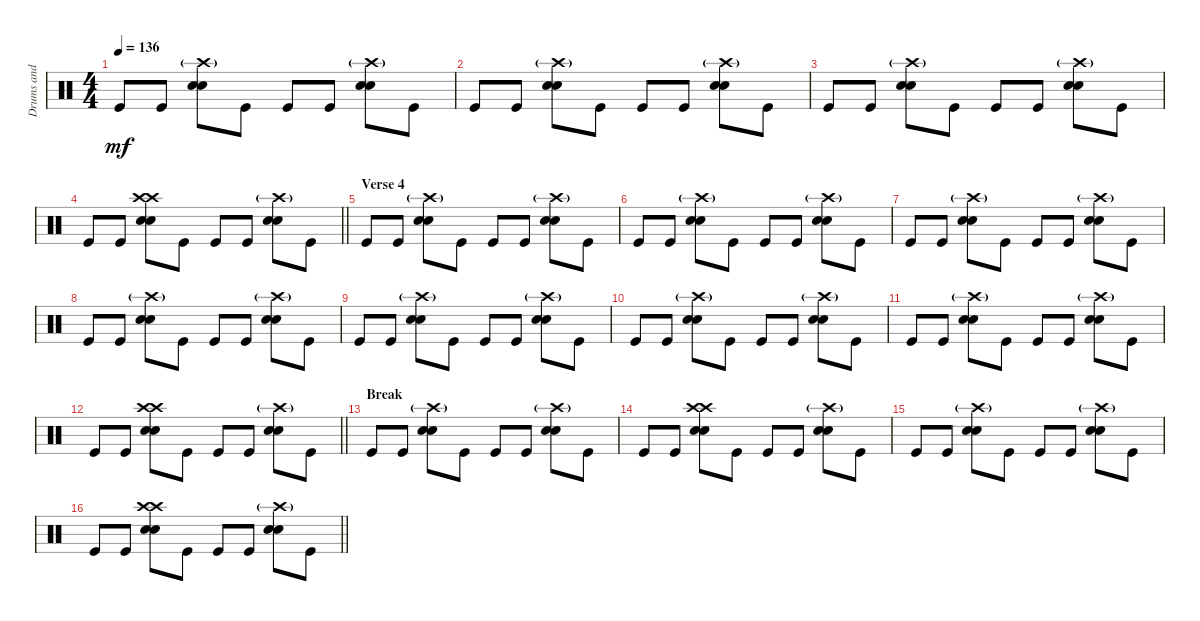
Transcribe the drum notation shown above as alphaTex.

\track ("Drums and Percussions" "Drums and ") {instrument percussion}
\staff {score}
\articulation defaults
\ts (4 4)
\tempo 136
\clef neutral
\ks c "Kick (hit)".8{dy mf} "Kick (hit)".8
("Crash high (hit)"{g} "Electric Snare (hit)" "Electric Snare (hit)").8 "Kick (hit)".8 "Kick (hit)".8 "Kick (hit)".8 ("Crash high (hit)"{g} "Electric Snare (hit)" "Electric Snare (hit)").8 "Kick (hit)".8 |
"Kick (hit)".8 "Kick (hit)".8 ("Crash high (hit)"{g} "Electric Snare (hit)" "Electric Snare (hit)").8 "Kick (hit)".8 "Kick (hit)".8 "Kick (hit)".8 ("Crash high (hit)"{g} "Electric Snare (hit)" "Electric Snare (hit)").8 "Kick (hit)".8 |
"Kick (hit)".8 "Kick (hit)".8 ("Crash high (hit)"{g} "Electric Snare (hit)" "Electric Snare (hit)").8 "Kick (hit)".8 "Kick (hit)".8 "Kick (hit)".8 ("Crash high (hit)"{g} "Electric Snare (hit)" "Electric Snare (hit)").8 "Kick (hit)".8 |
\barLineRight lightlight "Kick (hit)".8 "Kick (hit)".8
("Crash high (hit)" "Crash high (hit)" "Electric Snare (hit)" "Electric Snare (hit)").8 "Kick (hit)".8 "Kick (hit)".8 "Kick (hit)".8 ("Crash high (hit)"{g} "Electric Snare (hit)" "Electric Snare (hit)").8 "Kick (hit)".8 |
\section ("" "Verse 4")
"Kick (hit)".8 "Kick (hit)".8 ("Crash high (hit)"{g} "Electric Snare (hit)" "Electric Snare (hit)").8 "Kick (hit)".8 "Kick (hit)".8 "Kick (hit)".8 ("Crash high (hit)"{g} "Electric Snare (hit)" "Electric Snare (hit)").8 "Kick (hit)".8 |
"Kick (hit)".8 "Kick (hit)".8 ("Crash high (hit)"{g} "Electric Snare (hit)" "Electric Snare (hit)").8 "Kick (hit)".8 "Kick (hit)".8 "Kick (hit)".8 ("Crash high (hit)"{g} "Electric Snare (hit)" "Electric Snare (hit)").8 "Kick (hit)".8 |
"Kick (hit)".8 "Kick (hit)".8 ("Crash high (hit)"{g} "Electric Snare (hit)" "Electric Snare (hit)").8 "Kick (hit)".8 "Kick (hit)".8 "Kick (hit)".8 ("Crash high (hit)"{g} "Electric Snare (hit)" "Electric Snare (hit)").8 "Kick (hit)".8 |
"Kick (hit)".8 "Kick (hit)".8 ("Crash high (hit)"{g} "Electric Snare (hit)" "Electric Snare (hit)").8 "Kick (hit)".8 "Kick (hit)".8 "Kick (hit)".8 ("Crash high (hit)"{g} "Electric Snare (hit)" "Electric Snare (hit)").8 "Kick (hit)".8 |
"Kick (hit)".8 "Kick (hit)".8 ("Crash high (hit)"{g} "Electric Snare (hit)" "Electric Snare (hit)").8 "Kick (hit)".8 "Kick (hit)".8 "Kick (hit)".8 ("Crash high (hit)"{g} "Electric Snare (hit)" "Electric Snare (hit)").8 "Kick (hit)".8 |
"Kick (hit)".8 "Kick (hit)".8 ("Crash high (hit)"{g} "Electric Snare (hit)" "Electric Snare (hit)").8 "Kick (hit)".8 "Kick (hit)".8 "Kick (hit)".8 ("Crash high (hit)"{g} "Electric Snare (hit)" "Electric Snare (hit)").8 "Kick (hit)".8 |
"Kick (hit)".8 "Kick (hit)".8 ("Crash high (hit)"{g} "Electric Snare (hit)" "Electric Snare (hit)").8 "Kick (hit)".8 "Kick (hit)".8 "Kick (hit)".8 ("Crash high (hit)"{g} "Electric Snare (hit)" "Electric Snare (hit)").8 "Kick (hit)".8 |
\barLineRight lightlight "Kick (hit)".8 "Kick (hit)".8
("Crash high (hit)" "Crash high (hit)" "Electric Snare (hit)" "Electric Snare (hit)").8 "Kick (hit)".8 "Kick (hit)".8 "Kick (hit)".8 ("Crash high (hit)"{g} "Electric Snare (hit)" "Electric Snare (hit)").8 "Kick (hit)".8 |
\section ("" "Break")
"Kick (hit)".8 "Kick (hit)".8 ("Crash high (hit)"{g} "Electric Snare (hit)" "Electric Snare (hit)").8 "Kick (hit)".8 "Kick (hit)".8 "Kick (hit)".8 ("Crash high (hit)"{g} "Electric Snare (hit)" "Electric Snare (hit)").8 "Kick (hit)".8 |
"Kick (hit)".8 "Kick (hit)".8 ("Crash high (hit)" "Crash high (hit)" "Electric Snare (hit)" "Electric Snare (hit)").8 "Kick (hit)".8 "Kick (hit)".8 "Kick (hit)".8 ("Crash high (hit)"{g} "Electric Snare (hit)" "Electric Snare (hit)").8 "Kick (hit)".8 |
"Kick (hit)".8 "Kick (hit)".8 ("Crash high (hit)"{g} "Electric Snare (hit)" "Electric Snare (hit)").8 "Kick (hit)".8 "Kick (hit)".8 "Kick (hit)".8 ("Crash high (hit)"{g} "Electric Snare (hit)" "Electric Snare (hit)").8 "Kick (hit)".8 |
\barLineRight lightlight "Kick (hit)".8 "Kick (hit)".8
("Crash high (hit)" "Crash high (hit)" "Electric Snare (hit)" "Electric Snare (hit)").8 "Kick (hit)".8 "Kick (hit)".8 "Kick (hit)".8 ("Crash high (hit)"{g} "Electric Snare (hit)" "Electric Snare (hit)").8 "Kick (hit)".8
